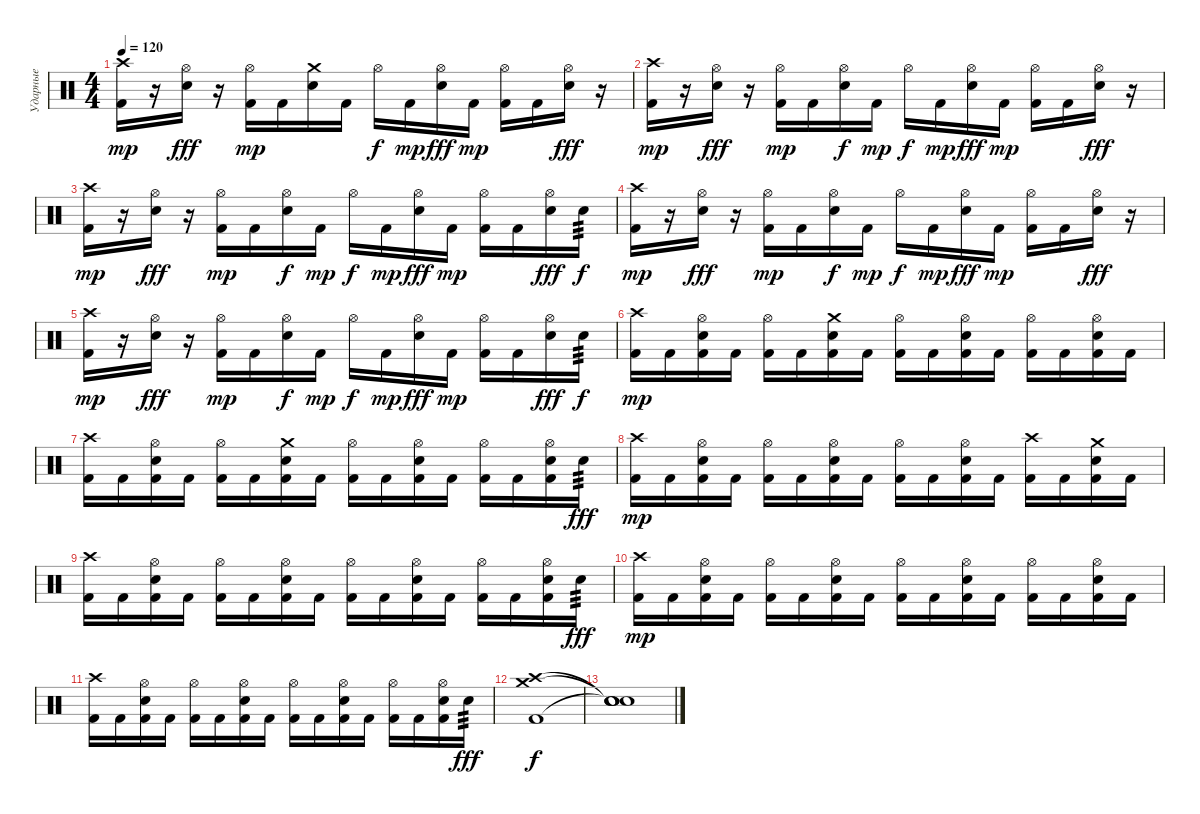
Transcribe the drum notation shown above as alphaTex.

\track ("Ударные" "Ударные") {instrument percussion}
\staff {score}
\articulation defaults
\ts (4 4)
\tempo 120
\clef neutral
\ks c
("Crash high (hit)" "Kick (hit) 2").16{dy mp} r.16 ("Hi-Hat (open)" "Snare (hit) 2").16{dy fff} r.16 ("Hi-Hat (open)" "Kick (hit) 2").16{dy mp} "Kick (hit) 2".16 ("Crash medium (hit)" "Snare (hit) 2").16 "Kick (hit) 2".16 "Hi-Hat (open)".16{dy f} "Kick (hit) 2".16{dy mp} ("Hi-Hat (open)" "Snare (hit) 2").16{dy fff} "Kick (hit) 2".16{dy mp} ("Hi-Hat (open)" "Kick (hit) 2").16 "Kick (hit) 2".16 ("Hi-Hat (open)" "Snare (hit) 2").16{dy fff} r.16 |
("Crash high (hit)" "Kick (hit) 2").16{dy mp} r.16 ("Hi-Hat (open)" "Snare (hit) 2").16{dy fff} r.16 ("Hi-Hat (open)" "Kick (hit) 2").16{dy mp} "Kick (hit) 2".16 ("Hi-Hat (open)" "Snare (hit) 2").16{dy f} "Kick (hit) 2".16{dy mp} "Hi-Hat (open)".16{dy f} "Kick (hit) 2".16{dy mp} ("Hi-Hat (open)" "Snare (hit) 2").16{dy fff} "Kick (hit) 2".16{dy mp} ("Hi-Hat (open)" "Kick (hit) 2").16 "Kick (hit) 2".16 ("Hi-Hat (open)" "Snare (hit) 2").16{dy fff} r.16 |
("Crash high (hit)" "Kick (hit) 2").16{dy mp} r.16 ("Hi-Hat (open)" "Snare (hit) 2").16{dy fff} r.16 ("Hi-Hat (open)" "Kick (hit) 2").16{dy mp} "Kick (hit) 2".16 ("Hi-Hat (open)" "Snare (hit) 2").16{dy f} "Kick (hit) 2".16{dy mp} "Hi-Hat (open)".16{dy f} "Kick (hit) 2".16{dy mp} ("Hi-Hat (open)" "Snare (hit) 2").16{dy fff} "Kick (hit) 2".16{dy mp} ("Hi-Hat (open)" "Kick (hit) 2").16 "Kick (hit) 2".16 ("Hi-Hat (open)" "Snare (hit) 2").16{dy fff} "Snare (hit) 2".16{tp 3 dy f} |
("Crash high (hit)" "Kick (hit) 2").16{dy mp} r.16 ("Hi-Hat (open)" "Snare (hit) 2").16{dy fff} r.16 ("Hi-Hat (open)" "Kick (hit) 2").16{dy mp} "Kick (hit) 2".16 ("Hi-Hat (open)" "Snare (hit) 2").16{dy f} "Kick (hit) 2".16{dy mp} "Hi-Hat (open)".16{dy f} "Kick (hit) 2".16{dy mp} ("Hi-Hat (open)" "Snare (hit) 2").16{dy fff} "Kick (hit) 2".16{dy mp} ("Hi-Hat (open)" "Kick (hit) 2").16 "Kick (hit) 2".16 ("Hi-Hat (open)" "Snare (hit) 2").16{dy fff} r.16 |
("Crash high (hit)" "Kick (hit) 2").16{dy mp} r.16 ("Hi-Hat (open)" "Snare (hit) 2").16{dy fff} r.16 ("Hi-Hat (open)" "Kick (hit) 2").16{dy mp} "Kick (hit) 2".16 ("Hi-Hat (open)" "Snare (hit) 2").16{dy f} "Kick (hit) 2".16{dy mp} "Hi-Hat (open)".16{dy f} "Kick (hit) 2".16{dy mp} ("Hi-Hat (open)" "Snare (hit) 2").16{dy fff} "Kick (hit) 2".16{dy mp} ("Hi-Hat (open)" "Kick (hit) 2").16 "Kick (hit) 2".16 ("Hi-Hat (open)" "Snare (hit) 2").16{dy fff} "Snare (hit) 2".16{tp 3 dy f} |
("Crash high (hit)" "Kick (hit) 2").16{dy mp} "Kick (hit) 2".16 ("Hi-Hat (open)" "Snare (hit) 2" "Kick (hit) 2").16 "Kick (hit) 2".16 ("Hi-Hat (open)" "Kick (hit) 2").16 "Kick (hit) 2".16 ("Crash medium (hit)" "Snare (hit) 2" "Kick (hit) 2").16 "Kick (hit) 2".16 ("Hi-Hat (open)" "Kick (hit) 2").16 "Kick (hit) 2".16 ("Hi-Hat (open)" "Snare (hit) 2" "Kick (hit) 2").16 "Kick (hit) 2".16 ("Hi-Hat (open)" "Kick (hit) 2").16 "Kick (hit) 2".16 ("Hi-Hat (open)" "Snare (hit) 2" "Kick (hit) 2").16 "Kick (hit) 2".16 |
("Crash high (hit)" "Kick (hit) 2").16 "Kick (hit) 2".16 ("Hi-Hat (open)" "Snare (hit) 2" "Kick (hit) 2").16 "Kick (hit) 2".16 ("Hi-Hat (open)" "Kick (hit) 2").16 "Kick (hit) 2".16 ("Crash medium (hit)" "Snare (hit) 2" "Kick (hit) 2").16 "Kick (hit) 2".16 ("Hi-Hat (open)" "Kick (hit) 2").16 "Kick (hit) 2".16 ("Hi-Hat (open)" "Snare (hit) 2" "Kick (hit) 2").16 "Kick (hit) 2".16 ("Hi-Hat (open)" "Kick (hit) 2").16 "Kick (hit) 2".16 ("Hi-Hat (open)" "Snare (hit) 2" "Kick (hit) 2").16 "Snare (hit) 2".16{tp 3 dy fff} |
("Crash high (hit)" "Kick (hit) 2").16{dy mp} "Kick (hit) 2".16 ("Hi-Hat (open)" "Snare (hit) 2" "Kick (hit) 2").16 "Kick (hit) 2".16 ("Hi-Hat (open)" "Kick (hit) 2").16 "Kick (hit) 2".16 ("Hi-Hat (open)" "Snare (hit) 2" "Kick (hit) 2").16 "Kick (hit) 2".16 ("Hi-Hat (open)" "Kick (hit) 2").16 "Kick (hit) 2".16 ("Hi-Hat (open)" "Snare (hit) 2" "Kick (hit) 2").16 "Kick (hit) 2".16 ("Crash high (hit)" "Kick (hit) 2").16 "Kick (hit) 2".16 ("Crash medium (hit)" "Snare (hit) 2" "Kick (hit) 2").16 "Kick (hit) 2".16 |
("Crash high (hit)" "Kick (hit) 2").16 "Kick (hit) 2".16 ("Hi-Hat (open)" "Snare (hit) 2" "Kick (hit) 2").16 "Kick (hit) 2".16 ("Hi-Hat (open)" "Kick (hit) 2").16 "Kick (hit) 2".16 ("Hi-Hat (open)" "Snare (hit) 2" "Kick (hit) 2").16 "Kick (hit) 2".16 ("Hi-Hat (open)" "Kick (hit) 2").16 "Kick (hit) 2".16 ("Hi-Hat (open)" "Snare (hit) 2" "Kick (hit) 2").16 "Kick (hit) 2".16 ("Hi-Hat (open)" "Kick (hit) 2").16 "Kick (hit) 2".16 ("Hi-Hat (open)" "Snare (hit) 2" "Kick (hit) 2").16 "Snare (hit) 2".16{tp 3 dy fff} |
("Crash high (hit)" "Kick (hit) 2").16{dy mp} "Kick (hit) 2".16 ("Hi-Hat (open)" "Snare (hit) 2" "Kick (hit) 2").16 "Kick (hit) 2".16 ("Hi-Hat (open)" "Kick (hit) 2").16 "Kick (hit) 2".16 ("Hi-Hat (open)" "Snare (hit) 2" "Kick (hit) 2").16 "Kick (hit) 2".16 ("Hi-Hat (open)" "Kick (hit) 2").16 "Kick (hit) 2".16 ("Hi-Hat (open)" "Snare (hit) 2" "Kick (hit) 2").16 "Kick (hit) 2".16 ("Hi-Hat (open)" "Kick (hit) 2").16 "Kick (hit) 2".16 ("Hi-Hat (open)" "Snare (hit) 2" "Kick (hit) 2").16 "Kick (hit) 2".16 |
("Crash high (hit)" "Kick (hit) 2").16 "Kick (hit) 2".16 ("Hi-Hat (open)" "Snare (hit) 2" "Kick (hit) 2").16 "Kick (hit) 2".16 ("Hi-Hat (open)" "Kick (hit) 2").16 "Kick (hit) 2".16 ("Hi-Hat (open)" "Snare (hit) 2" "Kick (hit) 2").16 "Kick (hit) 2".16 ("Hi-Hat (open)" "Kick (hit) 2").16 "Kick (hit) 2".16 ("Hi-Hat (open)" "Snare (hit) 2" "Kick (hit) 2").16 "Kick (hit) 2".16 ("Hi-Hat (open)" "Kick (hit) 2").16 "Kick (hit) 2".16 ("Hi-Hat (open)" "Snare (hit) 2" "Kick (hit) 2").16 "Snare (hit) 2".16{tp 3 dy fff} |
("Kick (hit) 2" "Crash high (hit)" "Crash medium (hit)").1{dy f} |
("Snare (hit)"{t} "Snare (hit)"{t} "Snare (hit)"{t} "Snare (hit)").1
